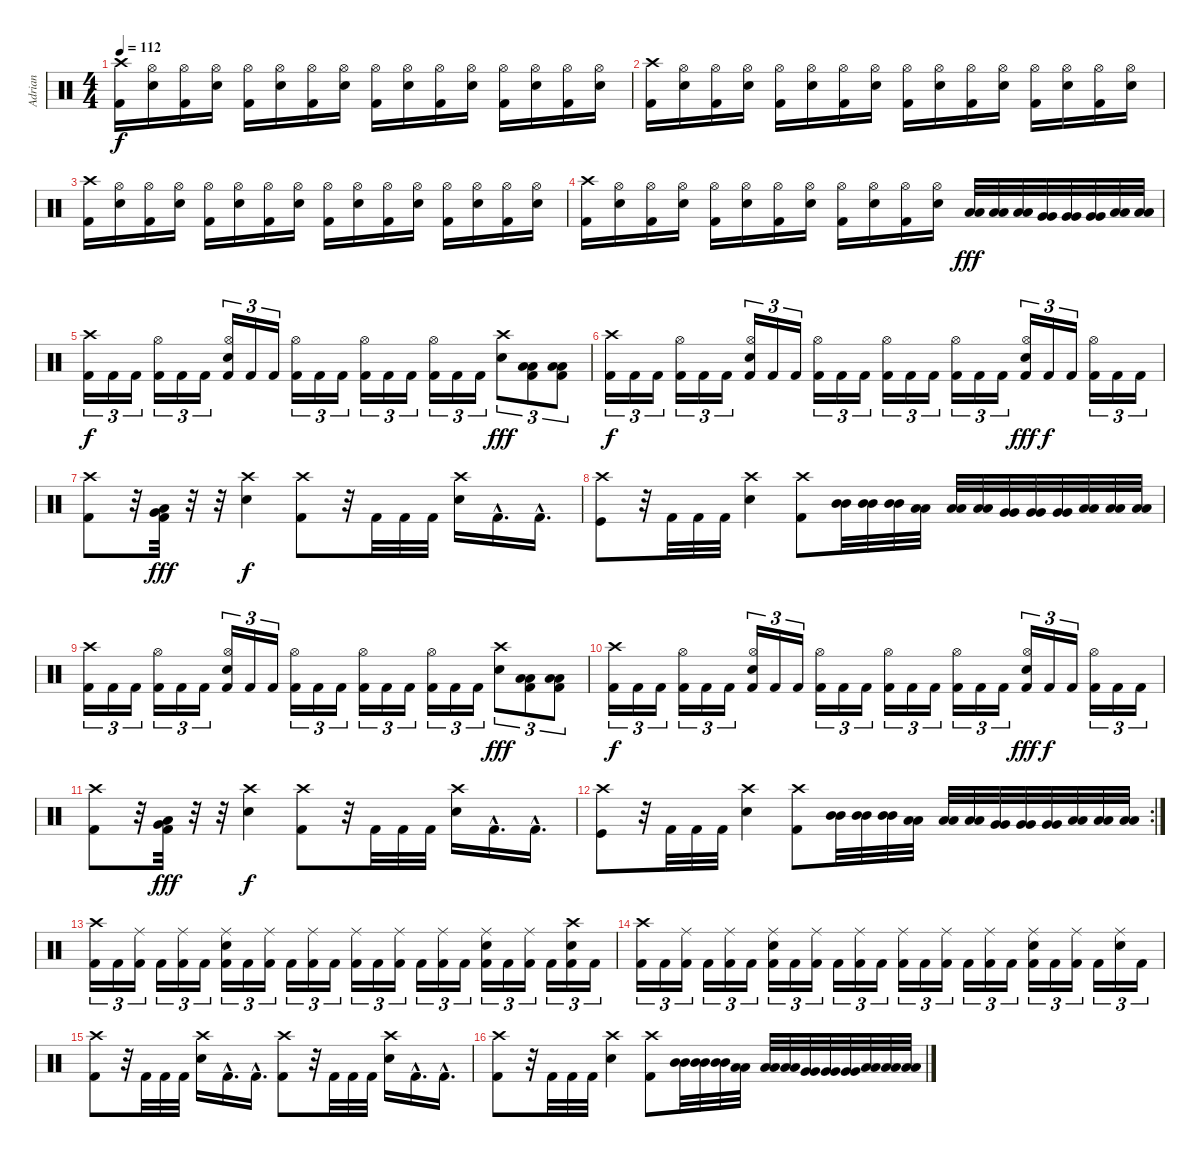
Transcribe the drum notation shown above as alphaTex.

\track ("Adrian" "Adrian") {instrument percussion}
\staff {score}
\articulation defaults
\ts (4 4)
\tempo 112
\clef neutral
\ks c
("Crash high (hit)" "Kick (hit) 2").16{dy f} ("Hi-Hat (open)" "Snare (hit) 2").16 ("Hi-Hat (open)" "Kick (hit) 2").16 ("Hi-Hat (open)" "Snare (hit) 2").16 ("Hi-Hat (open)" "Kick (hit) 2").16 ("Hi-Hat (open)" "Snare (hit) 2").16 ("Hi-Hat (open)" "Kick (hit) 2").16 ("Hi-Hat (open)" "Snare (hit) 2").16 ("Hi-Hat (open)" "Kick (hit) 2").16 ("Hi-Hat (open)" "Snare (hit) 2").16 ("Hi-Hat (open)" "Kick (hit) 2").16 ("Hi-Hat (open)" "Snare (hit) 2").16 ("Hi-Hat (open)" "Kick (hit) 2").16 ("Hi-Hat (open)" "Snare (hit) 2").16 ("Hi-Hat (open)" "Kick (hit) 2").16 ("Hi-Hat (open)" "Snare (hit) 2").16 |
("Crash high (hit)" "Kick (hit) 2").16 ("Hi-Hat (open)" "Snare (hit) 2").16 ("Hi-Hat (open)" "Kick (hit) 2").16 ("Hi-Hat (open)" "Snare (hit) 2").16 ("Hi-Hat (open)" "Kick (hit) 2").16 ("Hi-Hat (open)" "Snare (hit) 2").16 ("Hi-Hat (open)" "Kick (hit) 2").16 ("Hi-Hat (open)" "Snare (hit) 2").16 ("Hi-Hat (open)" "Kick (hit) 2").16 ("Hi-Hat (open)" "Snare (hit) 2").16 ("Hi-Hat (open)" "Kick (hit) 2").16 ("Hi-Hat (open)" "Snare (hit) 2").16 ("Hi-Hat (open)" "Kick (hit) 2").16 ("Hi-Hat (open)" "Snare (hit) 2").16 ("Hi-Hat (open)" "Kick (hit) 2").16 ("Hi-Hat (open)" "Snare (hit) 2").16 |
("Crash high (hit)" "Kick (hit) 2").16 ("Hi-Hat (open)" "Snare (hit) 2").16 ("Hi-Hat (open)" "Kick (hit) 2").16 ("Hi-Hat (open)" "Snare (hit) 2").16 ("Hi-Hat (open)" "Kick (hit) 2").16 ("Hi-Hat (open)" "Snare (hit) 2").16 ("Hi-Hat (open)" "Kick (hit) 2").16 ("Hi-Hat (open)" "Snare (hit) 2").16 ("Hi-Hat (open)" "Kick (hit) 2").16 ("Hi-Hat (open)" "Snare (hit) 2").16 ("Hi-Hat (open)" "Kick (hit) 2").16 ("Hi-Hat (open)" "Snare (hit) 2").16 ("Hi-Hat (open)" "Kick (hit) 2").16 ("Hi-Hat (open)" "Snare (hit) 2").16 ("Hi-Hat (open)" "Kick (hit) 2").16 ("Hi-Hat (open)" "Snare (hit) 2").16 |
("Kick (hit) 2" "Crash high (hit)").16 ("Snare (hit) 2" "Hi-Hat (open)").16 ("Kick (hit) 2" "Hi-Hat (open)").16 ("Snare (hit) 2" "Hi-Hat (open)").16 ("Kick (hit) 2" "Hi-Hat (open)").16 ("Snare (hit) 2" "Hi-Hat (open)").16 ("Kick (hit) 2" "Hi-Hat (open)").16 ("Snare (hit) 2" "Hi-Hat (open)").16 ("Kick (hit) 2" "Hi-Hat (open)").16 ("Snare (hit) 2" "Hi-Hat (open)").16 ("Kick (hit) 2" "Hi-Hat (open)").16 ("Snare (hit) 2" "Hi-Hat (open)").16 ("Low Tom (hit)" "Low Tom (hit)").32{dy fff} ("Low Tom (hit)" "Low Tom (hit)").32 ("Low Tom (hit)" "Low Tom (hit)").32 ("Very Low Tom (hit)" "Very Low Tom (hit)").32 ("Very Low Tom (hit)" "Very Low Tom (hit)").32 ("Very Low Tom (hit)" "Very Low Tom (hit)").32 ("Low Floor Tom (hit)" "Low Floor Tom (hit)").32 ("Low Floor Tom (hit)" "Low Floor Tom (hit)").32 |
("Kick (hit) 2" "Crash high (hit)").16{tu (3 2) dy f} "Kick (hit) 2".16{tu (3 2)} "Kick (hit) 2".16{tu (3 2)} ("Kick (hit) 2" "Hi-Hat (open)").16{tu (3 2)} "Kick (hit) 2".16{tu (3 2)} "Kick (hit) 2".16{tu (3 2)} ("Kick (hit) 2" "Snare (hit) 2" "Hi-Hat (open)").16{tu (3 2)} "Kick (hit) 2".16{tu (3 2)} "Kick (hit) 2".16{tu (3 2)} ("Kick (hit) 2" "Hi-Hat (open)").16{tu (3 2)} "Kick (hit) 2".16{tu (3 2)} "Kick (hit) 2".16{tu (3 2)} ("Kick (hit) 2" "Hi-Hat (open)").16{tu (3 2)} "Kick (hit) 2".16{tu (3 2)} "Kick (hit) 2".16{tu (3 2)} ("Kick (hit) 2" "Hi-Hat (open)").16{tu (3 2)} "Kick (hit) 2".16{tu (3 2)} "Kick (hit) 2".16{tu (3 2)} ("Snare (hit) 2" "Crash high (hit)").8{tu (3 2) dy fff} ("Low Floor Tom (hit)" "Low Floor Tom (hit)" "Kick (hit) 2").8{tu (3 2)} ("Low Floor Tom (hit)" "Low Floor Tom (hit)" "Kick (hit) 2").8{tu (3 2)} |
("Kick (hit) 2" "Crash high (hit)").16{tu (3 2) dy f} "Kick (hit) 2".16{tu (3 2)} "Kick (hit) 2".16{tu (3 2)} ("Kick (hit) 2" "Hi-Hat (open)").16{tu (3 2)} "Kick (hit) 2".16{tu (3 2)} "Kick (hit) 2".16{tu (3 2)} ("Kick (hit) 2" "Snare (hit) 2" "Hi-Hat (open)").16{tu (3 2)} "Kick (hit) 2".16{tu (3 2)} "Kick (hit) 2".16{tu (3 2)} ("Kick (hit) 2" "Hi-Hat (open)").16{tu (3 2)} "Kick (hit) 2".16{tu (3 2)} "Kick (hit) 2".16{tu (3 2)} ("Kick (hit) 2" "Hi-Hat (open)").16{tu (3 2)} "Kick (hit) 2".16{tu (3 2)} "Kick (hit) 2".16{tu (3 2)} ("Kick (hit) 2" "Hi-Hat (open)").16{tu (3 2)} "Kick (hit) 2".16{tu (3 2)} "Kick (hit) 2".16{tu (3 2)} ("Kick (hit) 2" "Snare (hit) 2" "Hi-Hat (open)").16{tu (3 2) dy fff} "Kick (hit) 2".16{tu (3 2) dy f} "Kick (hit) 2".16{tu (3 2)} ("Kick (hit) 2" "Hi-Hat (open)").16{tu (3 2)} "Kick (hit) 2".16{tu (3 2)} "Kick (hit) 2".16{tu (3 2)} |
("Crash high (hit)" "Kick (hit) 2").8 r.32 ("Low Tom (hit)" "Very Low Tom (hit)" "Kick (hit) 2").32{dy fff} r.32 r.32 ("Crash high (hit)" "Snare (hit) 2").4{dy f} ("Crash high (hit)" "Kick (hit) 2").8 r.32 "Kick (hit) 2".32 "Kick (hit) 2".32 "Kick (hit) 2".32 ("Crash high (hit)" "Snare (hit) 2").16 "Kick (hit) 2"{hac}.16{d} "Kick (hit) 2"{hac}.16{d} |
("Crash high (hit)" "Kick (hit)").8 r.32 "Kick (hit) 2".32 "Kick (hit) 2".32 "Kick (hit) 2".32 ("Crash high (hit)" "Snare (hit) 2").4 ("Crash high (hit)" "Kick (hit) 2").8 ("Mid Tom (hit)" "Mid Tom (hit)").32 ("Mid Tom (hit)" "Mid Tom (hit)").32 ("Mid Tom (hit)" "Mid Tom (hit)").32 ("Low Tom (hit)" "Low Tom (hit)").32 ("Low Tom (hit)" "Low Tom (hit)").32 ("Low Tom (hit)" "Low Tom (hit)").32 ("Very Low Tom (hit)" "Very Low Tom (hit)").32 ("Very Low Tom (hit)" "Very Low Tom (hit)").32 ("Very Low Tom (hit)" "Very Low Tom (hit)").32 ("Low Floor Tom (hit)" "Low Floor Tom (hit)").32 ("Low Floor Tom (hit)" "Low Floor Tom (hit)").32 ("Low Floor Tom (hit)" "Low Floor Tom (hit)").32 |
("Kick (hit) 2" "Crash high (hit)").16{tu (3 2)} "Kick (hit) 2".16{tu (3 2)} "Kick (hit) 2".16{tu (3 2)} ("Kick (hit) 2" "Hi-Hat (open)").16{tu (3 2)} "Kick (hit) 2".16{tu (3 2)} "Kick (hit) 2".16{tu (3 2)} ("Kick (hit) 2" "Snare (hit) 2" "Hi-Hat (open)").16{tu (3 2)} "Kick (hit) 2".16{tu (3 2)} "Kick (hit) 2".16{tu (3 2)} ("Kick (hit) 2" "Hi-Hat (open)").16{tu (3 2)} "Kick (hit) 2".16{tu (3 2)} "Kick (hit) 2".16{tu (3 2)} ("Kick (hit) 2" "Hi-Hat (open)").16{tu (3 2)} "Kick (hit) 2".16{tu (3 2)} "Kick (hit) 2".16{tu (3 2)} ("Kick (hit) 2" "Hi-Hat (open)").16{tu (3 2)} "Kick (hit) 2".16{tu (3 2)} "Kick (hit) 2".16{tu (3 2)} ("Snare (hit) 2" "Crash high (hit)").8{tu (3 2) dy fff} ("Low Floor Tom (hit)" "Low Floor Tom (hit)" "Kick (hit) 2").8{tu (3 2)} ("Low Floor Tom (hit)" "Low Floor Tom (hit)" "Kick (hit) 2").8{tu (3 2)} |
("Kick (hit) 2" "Crash high (hit)").16{tu (3 2) dy f} "Kick (hit) 2".16{tu (3 2)} "Kick (hit) 2".16{tu (3 2)} ("Kick (hit) 2" "Hi-Hat (open)").16{tu (3 2)} "Kick (hit) 2".16{tu (3 2)} "Kick (hit) 2".16{tu (3 2)} ("Kick (hit) 2" "Snare (hit) 2" "Hi-Hat (open)").16{tu (3 2)} "Kick (hit) 2".16{tu (3 2)} "Kick (hit) 2".16{tu (3 2)} ("Kick (hit) 2" "Hi-Hat (open)").16{tu (3 2)} "Kick (hit) 2".16{tu (3 2)} "Kick (hit) 2".16{tu (3 2)} ("Kick (hit) 2" "Hi-Hat (open)").16{tu (3 2)} "Kick (hit) 2".16{tu (3 2)} "Kick (hit) 2".16{tu (3 2)} ("Kick (hit) 2" "Hi-Hat (open)").16{tu (3 2)} "Kick (hit) 2".16{tu (3 2)} "Kick (hit) 2".16{tu (3 2)} ("Kick (hit) 2" "Snare (hit) 2" "Hi-Hat (open)").16{tu (3 2) dy fff} "Kick (hit) 2".16{tu (3 2) dy f} "Kick (hit) 2".16{tu (3 2)} ("Kick (hit) 2" "Hi-Hat (open)").16{tu (3 2)} "Kick (hit) 2".16{tu (3 2)} "Kick (hit) 2".16{tu (3 2)} |
("Crash high (hit)" "Kick (hit) 2").8 r.32 ("Low Tom (hit)" "Very Low Tom (hit)" "Kick (hit) 2").32{dy fff} r.32 r.32 ("Crash high (hit)" "Snare (hit) 2").4{dy f} ("Crash high (hit)" "Kick (hit) 2").8 r.32 "Kick (hit) 2".32 "Kick (hit) 2".32 "Kick (hit) 2".32 ("Crash high (hit)" "Snare (hit) 2").16 "Kick (hit) 2"{hac}.16{d} "Kick (hit) 2"{hac}.16{d} |
\rc 2
("Crash high (hit)" "Kick (hit)").8 r.32 "Kick (hit) 2".32 "Kick (hit) 2".32 "Kick (hit) 2".32 ("Crash high (hit)" "Snare (hit) 2").4 ("Crash high (hit)" "Kick (hit) 2").8 ("Mid Tom (hit)" "Mid Tom (hit)").32 ("Mid Tom (hit)" "Mid Tom (hit)").32 ("Mid Tom (hit)" "Mid Tom (hit)").32 ("Low Tom (hit)" "Low Tom (hit)").32 ("Low Tom (hit)" "Low Tom (hit)").32 ("Low Tom (hit)" "Low Tom (hit)").32 ("Very Low Tom (hit)" "Very Low Tom (hit)").32 ("Very Low Tom (hit)" "Very Low Tom (hit)").32 ("Very Low Tom (hit)" "Very Low Tom (hit)").32 ("Low Floor Tom (hit)" "Low Floor Tom (hit)").32 ("Low Floor Tom (hit)" "Low Floor Tom (hit)").32 ("Low Floor Tom (hit)" "Low Floor Tom (hit)").32 |
("Crash high (hit)" "Kick (hit) 2").16{tu (3 2)} "Kick (hit) 2".16{tu (3 2)} ("Ride (middle)" "Kick (hit) 2").16{tu (3 2)} "Kick (hit) 2".16{tu (3 2)} ("Ride (middle)" "Kick (hit) 2").16{tu (3 2)} "Kick (hit) 2".16{tu (3 2)} ("Ride (middle)" "Kick (hit) 2" "Snare (hit) 2").16{tu (3 2)} "Kick (hit) 2".16{tu (3 2)} ("Ride (middle)" "Kick (hit) 2").16{tu (3 2)} "Kick (hit) 2".16{tu (3 2)} ("Ride (middle)" "Kick (hit) 2").16{tu (3 2)} "Kick (hit) 2".16{tu (3 2)} ("Ride (middle)" "Kick (hit) 2").16{tu (3 2)} "Kick (hit) 2".16{tu (3 2)} ("Ride (middle)" "Kick (hit) 2").16{tu (3 2)} "Kick (hit) 2".16{tu (3 2)} ("Ride (middle)" "Kick (hit) 2").16{tu (3 2)} "Kick (hit) 2".16{tu (3 2)} ("Ride (middle)" "Kick (hit) 2" "Snare (hit) 2").16{tu (3 2)} "Kick (hit) 2".16{tu (3 2)} ("Ride (middle)" "Kick (hit) 2").16{tu (3 2)} "Kick (hit) 2".16{tu (3 2)} ("Crash high (hit)" "Snare (hit) 2" "Kick (hit) 2").16{tu (3 2)} "Kick (hit) 2".16{tu (3 2)} |
("Crash high (hit)" "Kick (hit) 2").16{tu (3 2)} "Kick (hit) 2".16{tu (3 2)} ("Ride (middle)" "Kick (hit) 2").16{tu (3 2)} "Kick (hit) 2".16{tu (3 2)} ("Ride (middle)" "Kick (hit) 2").16{tu (3 2)} "Kick (hit) 2".16{tu (3 2)} ("Ride (middle)" "Kick (hit) 2" "Snare (hit) 2").16{tu (3 2)} "Kick (hit) 2".16{tu (3 2)} ("Ride (middle)" "Kick (hit) 2").16{tu (3 2)} "Kick (hit) 2".16{tu (3 2)} ("Ride (middle)" "Kick (hit) 2").16{tu (3 2)} "Kick (hit) 2".16{tu (3 2)} ("Ride (middle)" "Kick (hit) 2").16{tu (3 2)} "Kick (hit) 2".16{tu (3 2)} ("Ride (middle)" "Kick (hit) 2").16{tu (3 2)} "Kick (hit) 2".16{tu (3 2)} ("Ride (middle)" "Kick (hit) 2").16{tu (3 2)} "Kick (hit) 2".16{tu (3 2)} ("Ride (middle)" "Kick (hit) 2" "Snare (hit) 2").16{tu (3 2)} "Kick (hit) 2".16{tu (3 2)} ("Ride (middle)" "Kick (hit) 2").16{tu (3 2)} "Kick (hit) 2".16{tu (3 2)} ("Ride (middle)" "Snare (hit) 2").16{tu (3 2)} "Kick (hit) 2".16{tu (3 2)} |
("Crash high (hit)" "Kick (hit) 2").8 r.32 "Kick (hit) 2".32 "Kick (hit) 2".32 "Kick (hit) 2".32 ("Crash high (hit)" "Snare (hit) 2").16 "Kick (hit) 2"{hac}.16{d} "Kick (hit) 2"{hac}.16{d} ("Crash high (hit)" "Kick (hit) 2").8 r.32 "Kick (hit) 2".32 "Kick (hit) 2".32 "Kick (hit) 2".32 ("Crash high (hit)" "Snare (hit) 2").16 "Kick (hit) 2"{hac}.16{d} "Kick (hit) 2"{hac}.16{d} |
("Crash high (hit)" "Kick (hit) 2").8 r.32 "Kick (hit) 2".32 "Kick (hit) 2".32 "Kick (hit) 2".32 ("Crash high (hit)" "Snare (hit) 2").4 ("Crash high (hit)" "Kick (hit) 2").8 ("Mid Tom (hit)" "Mid Tom (hit)").32 ("Mid Tom (hit)" "Mid Tom (hit)").32 ("Mid Tom (hit)" "Mid Tom (hit)").32 ("Low Tom (hit)" "Low Tom (hit)").32 ("Low Tom (hit)" "Low Tom (hit)").32 ("Low Tom (hit)" "Low Tom (hit)").32 ("Very Low Tom (hit)" "Very Low Tom (hit)").32 ("Very Low Tom (hit)" "Very Low Tom (hit)").32 ("Very Low Tom (hit)" "Very Low Tom (hit)").32 ("Low Floor Tom (hit)" "Low Floor Tom (hit)").32 ("Low Floor Tom (hit)" "Low Floor Tom (hit)").32 ("Low Floor Tom (hit)" "Low Floor Tom (hit)").32
